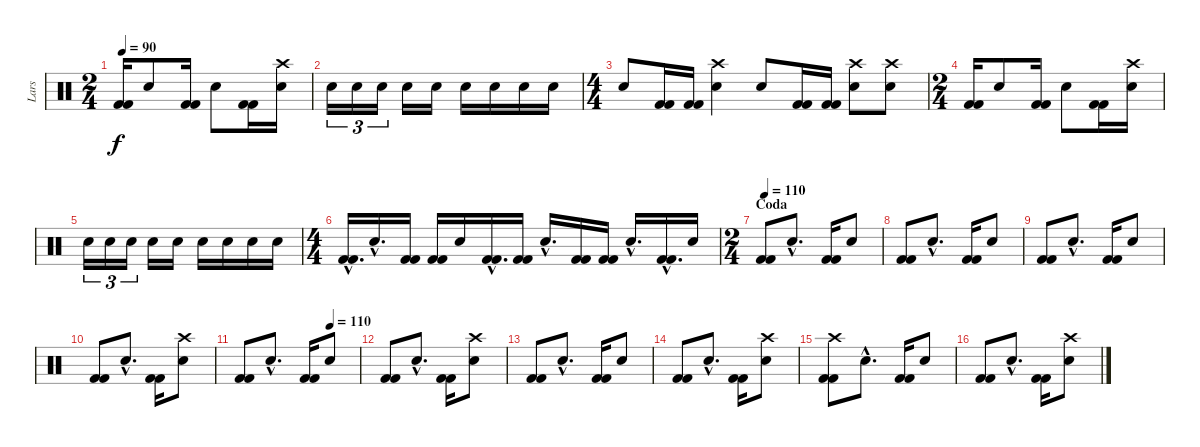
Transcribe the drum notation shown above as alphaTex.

\track ("Lars" "Lars") {instrument percussion}
\staff {score}
\articulation defaults
\ts (2 4)
\tempo 90
\clef neutral
\ks c
("Kick (hit) 2" "Kick (hit) 2").16{dy f} "Snare (hit) 2".8 ("Kick (hit) 2" "Kick (hit) 2").16 "Snare (hit) 2".8 ("Kick (hit) 2" "Kick (hit) 2").16 ("Snare (hit) 2" "Crash high (hit)").16 |
"Snare (hit) 2".16{tu (3 2)} "Snare (hit) 2".16{tu (3 2)} "Snare (hit) 2".16{tu (3 2)} "Snare (hit) 2".16 "Snare (hit) 2".16 "Snare (hit) 2".16 "Snare (hit) 2".16 "Snare (hit) 2".16 "Snare (hit) 2".16 |
\ts (4 4)
"Snare (hit) 2".8 ("Kick (hit) 2" "Kick (hit) 2").16 ("Kick (hit) 2" "Kick (hit) 2").16 ("Snare (hit) 2" "Crash high (hit)").4 "Snare (hit) 2".8 ("Kick (hit) 2" "Kick (hit) 2").16 ("Kick (hit) 2" "Kick (hit) 2").16 ("Snare (hit) 2" "Crash high (hit)").8 ("Crash high (hit)" "Snare (hit) 2").8 |
\ts (2 4)
("Kick (hit) 2" "Kick (hit) 2").16 "Snare (hit) 2".8 ("Kick (hit) 2" "Kick (hit) 2").16 "Snare (hit) 2".8 ("Kick (hit) 2" "Kick (hit) 2").16 ("Snare (hit) 2" "Crash high (hit)").16 |
"Snare (hit) 2".16{tu (3 2)} "Snare (hit) 2".16{tu (3 2)} "Snare (hit) 2".16{tu (3 2)} "Snare (hit) 2".16 "Snare (hit) 2".16 "Snare (hit) 2".16 "Snare (hit) 2".16 "Snare (hit) 2".16 "Snare (hit) 2".16 |
\ts (4 4)
("Kick (hit) 2"{hac} "Kick (hit) 2"{hac}).16{d} "Snare (hit) 2"{hac}.16{d} ("Kick (hit) 2" "Kick (hit) 2").16 ("Kick (hit) 2" "Kick (hit) 2").16 "Snare (hit) 2".16 ("Kick (hit) 2"{hac} "Kick (hit) 2"{hac}).16{d} ("Kick (hit) 2" "Kick (hit) 2").16 "Snare (hit) 2"{hac}.16{d} ("Kick (hit) 2" "Kick (hit) 2").16 ("Kick (hit) 2" "Kick (hit) 2").16 "Snare (hit) 2"{hac}.16{d} ("Kick (hit) 2"{hac} "Kick (hit) 2"{hac}).16{d} "Snare (hit) 2".16 |
\ts (2 4)
\section ("" "Coda")
\tempo 110
("Kick (hit) 2" "Kick (hit) 2").8 "Snare (hit) 2"{hac}.8{d} ("Kick (hit) 2" "Kick (hit) 2").16 "Snare (hit) 2".8 |
("Kick (hit) 2" "Kick (hit) 2").8 "Snare (hit) 2"{hac}.8{d} ("Kick (hit) 2" "Kick (hit) 2").16 "Snare (hit) 2".8 |
("Kick (hit) 2" "Kick (hit) 2").8 "Snare (hit) 2"{hac}.8{d} ("Kick (hit) 2" "Kick (hit) 2").16 "Snare (hit) 2".8 |
("Kick (hit) 2" "Kick (hit) 2").8 "Snare (hit) 2"{hac}.8{d} ("Kick (hit) 2" "Kick (hit) 2").16 ("Snare (hit) 2" "Crash high (hit)").8 |
\tempo (110 0.75)
("Kick (hit) 2" "Kick (hit) 2").8 "Snare (hit) 2"{hac}.8{d} ("Kick (hit) 2" "Kick (hit) 2").16 "Snare (hit) 2".8 |
("Kick (hit) 2" "Kick (hit) 2").8 "Snare (hit) 2"{hac}.8{d} ("Kick (hit) 2" "Kick (hit) 2").16 ("Snare (hit) 2" "Crash high (hit)").8 |
("Kick (hit) 2" "Kick (hit) 2").8 "Snare (hit) 2"{hac}.8{d} ("Kick (hit) 2" "Kick (hit) 2").16 "Snare (hit) 2".8 |
("Kick (hit) 2" "Kick (hit) 2").8 "Snare (hit) 2"{hac}.8{d} ("Kick (hit) 2" "Kick (hit) 2").16 ("Snare (hit) 2" "Crash high (hit)").8 |
("Crash high (hit)" "Kick (hit) 2" "Kick (hit) 2").8 "Snare (hit) 2"{hac}.8{d} ("Kick (hit) 2" "Kick (hit) 2").16 "Snare (hit) 2".8 |
("Kick (hit) 2" "Kick (hit) 2").8 "Snare (hit) 2"{hac}.8{d} ("Kick (hit) 2" "Kick (hit) 2").16 ("Snare (hit) 2" "Crash high (hit)").8
